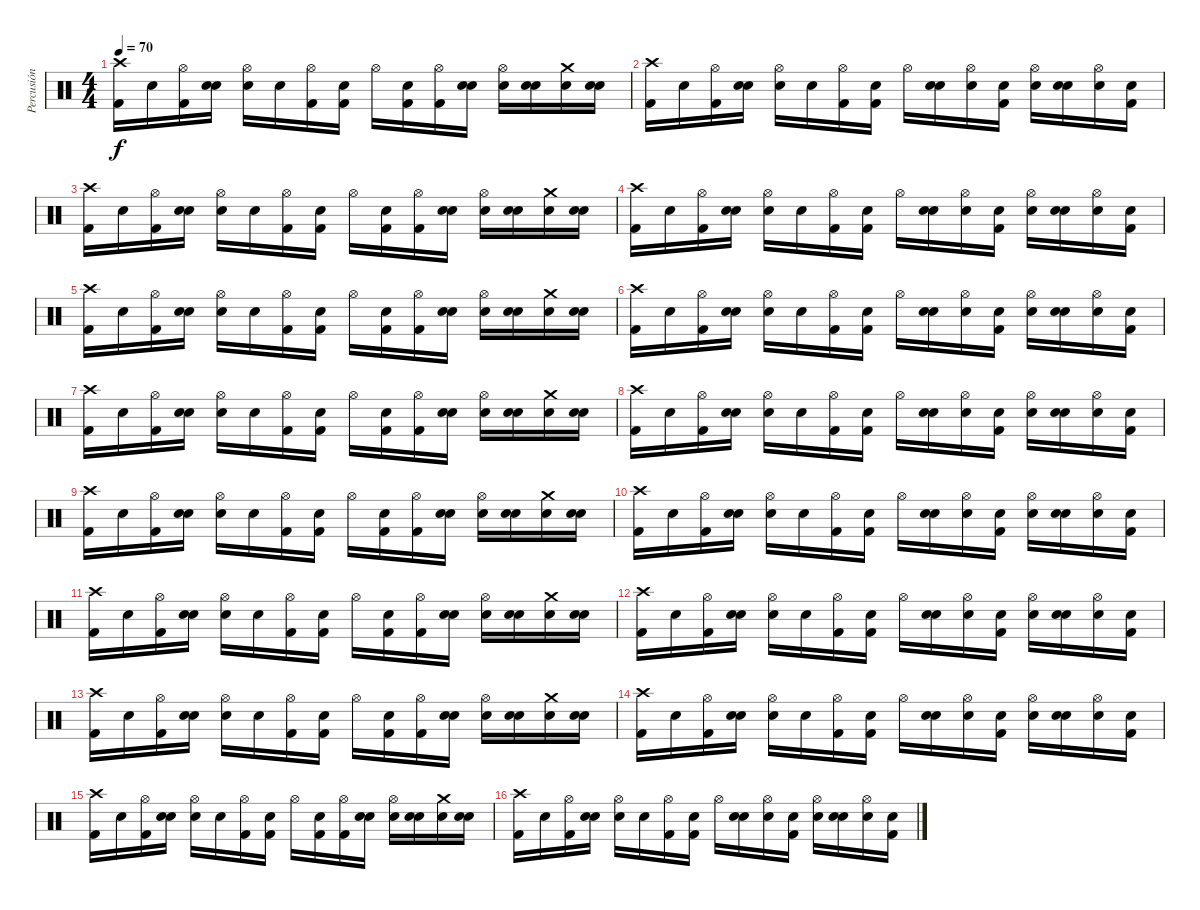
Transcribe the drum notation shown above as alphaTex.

\track ("Percusión" "Percusión") {instrument percussion}
\staff {score}
\articulation defaults
\ts (4 4)
\tempo 70
\clef neutral
\ks c
("Crash high (hit)" "Kick (hit) 2").16{dy f} "Snare (hit)".16 ("Hi-Hat (open)" "Kick (hit) 2").16 ("Snare (hit)" "Snare (hit)").16 ("Hi-Hat (open)" "Electric Snare (hit)").16 "Snare (hit)".16 ("Hi-Hat (open)" "Kick (hit) 2").16 ("Snare (hit)" "Kick (hit) 2").16 "Hi-Hat (open)".16 ("Snare (hit)" "Kick (hit) 2").16 ("Hi-Hat (open)" "Kick (hit) 2").16 ("Snare (hit)" "Snare (hit)").16 ("Hi-Hat (open)" "Electric Snare (hit)").16 ("Snare (hit)" "Electric Snare (hit)").16 ("Crash medium (hit)" "Electric Snare (hit)").16 ("Snare (hit)" "Electric Snare (hit)").16 |
("Crash high (hit)" "Kick (hit) 2").16 "Snare (hit)".16 ("Hi-Hat (open)" "Kick (hit) 2").16 ("Snare (hit)" "Snare (hit)").16 ("Hi-Hat (open)" "Electric Snare (hit)").16 "Snare (hit)".16 ("Hi-Hat (open)" "Kick (hit) 2").16 ("Snare (hit)" "Kick (hit) 2").16 "Hi-Hat (open)".16 ("Snare (hit)" "Electric Snare (hit)").16 ("Hi-Hat (open)" "Snare (hit)").16 ("Snare (hit)" "Kick (hit) 2").16 ("Hi-Hat (open)" "Electric Snare (hit)").16 ("Snare (hit)" "Electric Snare (hit)").16 ("Hi-Hat (open)" "Snare (hit)").16 ("Snare (hit)" "Kick (hit) 2").16 |
("Crash high (hit)" "Kick (hit) 2").16 "Snare (hit)".16 ("Hi-Hat (open)" "Kick (hit) 2").16 ("Snare (hit)" "Snare (hit)").16 ("Hi-Hat (open)" "Electric Snare (hit)").16 "Snare (hit)".16 ("Hi-Hat (open)" "Kick (hit) 2").16 ("Snare (hit)" "Kick (hit) 2").16 "Hi-Hat (open)".16 ("Snare (hit)" "Kick (hit) 2").16 ("Hi-Hat (open)" "Kick (hit) 2").16 ("Snare (hit)" "Snare (hit)").16 ("Hi-Hat (open)" "Electric Snare (hit)").16 ("Snare (hit)" "Electric Snare (hit)").16 ("Crash medium (hit)" "Electric Snare (hit)").16 ("Snare (hit)" "Electric Snare (hit)").16 |
("Crash high (hit)" "Kick (hit) 2").16 "Snare (hit)".16 ("Hi-Hat (open)" "Kick (hit) 2").16 ("Snare (hit)" "Snare (hit)").16 ("Hi-Hat (open)" "Electric Snare (hit)").16 "Snare (hit)".16 ("Hi-Hat (open)" "Kick (hit) 2").16 ("Snare (hit)" "Kick (hit) 2").16 "Hi-Hat (open)".16 ("Snare (hit)" "Electric Snare (hit)").16 ("Hi-Hat (open)" "Snare (hit)").16 ("Snare (hit)" "Kick (hit) 2").16 ("Hi-Hat (open)" "Electric Snare (hit)").16 ("Snare (hit)" "Electric Snare (hit)").16 ("Hi-Hat (open)" "Snare (hit)").16 ("Snare (hit)" "Kick (hit) 2").16 |
("Crash high (hit)" "Kick (hit) 2").16 "Snare (hit)".16 ("Hi-Hat (open)" "Kick (hit) 2").16 ("Snare (hit)" "Snare (hit)").16 ("Hi-Hat (open)" "Electric Snare (hit)").16 "Snare (hit)".16 ("Hi-Hat (open)" "Kick (hit) 2").16 ("Snare (hit)" "Kick (hit) 2").16 "Hi-Hat (open)".16 ("Snare (hit)" "Kick (hit) 2").16 ("Hi-Hat (open)" "Kick (hit) 2").16 ("Snare (hit)" "Snare (hit)").16 ("Hi-Hat (open)" "Electric Snare (hit)").16 ("Snare (hit)" "Electric Snare (hit)").16 ("Crash medium (hit)" "Electric Snare (hit)").16 ("Snare (hit)" "Electric Snare (hit)").16 |
("Crash high (hit)" "Kick (hit) 2").16 "Snare (hit)".16 ("Hi-Hat (open)" "Kick (hit) 2").16 ("Snare (hit)" "Snare (hit)").16 ("Hi-Hat (open)" "Electric Snare (hit)").16 "Snare (hit)".16 ("Hi-Hat (open)" "Kick (hit) 2").16 ("Snare (hit)" "Kick (hit) 2").16 "Hi-Hat (open)".16 ("Snare (hit)" "Electric Snare (hit)").16 ("Hi-Hat (open)" "Snare (hit)").16 ("Snare (hit)" "Kick (hit) 2").16 ("Hi-Hat (open)" "Electric Snare (hit)").16 ("Snare (hit)" "Electric Snare (hit)").16 ("Hi-Hat (open)" "Snare (hit)").16 ("Snare (hit)" "Kick (hit) 2").16 |
("Crash high (hit)" "Kick (hit) 2").16 "Snare (hit)".16 ("Hi-Hat (open)" "Kick (hit) 2").16 ("Snare (hit)" "Snare (hit)").16 ("Hi-Hat (open)" "Electric Snare (hit)").16 "Snare (hit)".16 ("Hi-Hat (open)" "Kick (hit) 2").16 ("Snare (hit)" "Kick (hit) 2").16 "Hi-Hat (open)".16 ("Snare (hit)" "Kick (hit) 2").16 ("Hi-Hat (open)" "Kick (hit) 2").16 ("Snare (hit)" "Snare (hit)").16 ("Hi-Hat (open)" "Electric Snare (hit)").16 ("Snare (hit)" "Electric Snare (hit)").16 ("Crash medium (hit)" "Electric Snare (hit)").16 ("Snare (hit)" "Electric Snare (hit)").16 |
("Crash high (hit)" "Kick (hit) 2").16 "Snare (hit)".16 ("Hi-Hat (open)" "Kick (hit) 2").16 ("Snare (hit)" "Snare (hit)").16 ("Hi-Hat (open)" "Electric Snare (hit)").16 "Snare (hit)".16 ("Hi-Hat (open)" "Kick (hit) 2").16 ("Snare (hit)" "Kick (hit) 2").16 "Hi-Hat (open)".16 ("Snare (hit)" "Electric Snare (hit)").16 ("Hi-Hat (open)" "Snare (hit)").16 ("Snare (hit)" "Kick (hit) 2").16 ("Hi-Hat (open)" "Electric Snare (hit)").16 ("Snare (hit)" "Electric Snare (hit)").16 ("Hi-Hat (open)" "Snare (hit)").16 ("Snare (hit)" "Kick (hit) 2").16 |
("Crash high (hit)" "Kick (hit) 2").16 "Snare (hit)".16 ("Hi-Hat (open)" "Kick (hit) 2").16 ("Snare (hit)" "Snare (hit)").16 ("Hi-Hat (open)" "Electric Snare (hit)").16 "Snare (hit)".16 ("Hi-Hat (open)" "Kick (hit) 2").16 ("Snare (hit)" "Kick (hit) 2").16 "Hi-Hat (open)".16 ("Snare (hit)" "Kick (hit) 2").16 ("Hi-Hat (open)" "Kick (hit) 2").16 ("Snare (hit)" "Snare (hit)").16 ("Hi-Hat (open)" "Electric Snare (hit)").16 ("Snare (hit)" "Electric Snare (hit)").16 ("Crash medium (hit)" "Electric Snare (hit)").16 ("Snare (hit)" "Electric Snare (hit)").16 |
("Crash high (hit)" "Kick (hit) 2").16 "Snare (hit)".16 ("Hi-Hat (open)" "Kick (hit) 2").16 ("Snare (hit)" "Snare (hit)").16 ("Hi-Hat (open)" "Electric Snare (hit)").16 "Snare (hit)".16 ("Hi-Hat (open)" "Kick (hit) 2").16 ("Snare (hit)" "Kick (hit) 2").16 "Hi-Hat (open)".16 ("Snare (hit)" "Electric Snare (hit)").16 ("Hi-Hat (open)" "Snare (hit)").16 ("Snare (hit)" "Kick (hit) 2").16 ("Hi-Hat (open)" "Electric Snare (hit)").16 ("Snare (hit)" "Electric Snare (hit)").16 ("Hi-Hat (open)" "Snare (hit)").16 ("Snare (hit)" "Kick (hit) 2").16 |
("Crash high (hit)" "Kick (hit) 2").16 "Snare (hit)".16 ("Hi-Hat (open)" "Kick (hit) 2").16 ("Snare (hit)" "Snare (hit)").16 ("Hi-Hat (open)" "Electric Snare (hit)").16 "Snare (hit)".16 ("Hi-Hat (open)" "Kick (hit) 2").16 ("Snare (hit)" "Kick (hit) 2").16 "Hi-Hat (open)".16 ("Snare (hit)" "Kick (hit) 2").16 ("Hi-Hat (open)" "Kick (hit) 2").16 ("Snare (hit)" "Snare (hit)").16 ("Hi-Hat (open)" "Electric Snare (hit)").16 ("Snare (hit)" "Electric Snare (hit)").16 ("Crash medium (hit)" "Electric Snare (hit)").16 ("Snare (hit)" "Electric Snare (hit)").16 |
("Crash high (hit)" "Kick (hit) 2").16 "Snare (hit)".16 ("Hi-Hat (open)" "Kick (hit) 2").16 ("Snare (hit)" "Snare (hit)").16 ("Hi-Hat (open)" "Electric Snare (hit)").16 "Snare (hit)".16 ("Hi-Hat (open)" "Kick (hit) 2").16 ("Snare (hit)" "Kick (hit) 2").16 "Hi-Hat (open)".16 ("Snare (hit)" "Electric Snare (hit)").16 ("Hi-Hat (open)" "Snare (hit)").16 ("Snare (hit)" "Kick (hit) 2").16 ("Hi-Hat (open)" "Electric Snare (hit)").16 ("Snare (hit)" "Electric Snare (hit)").16 ("Hi-Hat (open)" "Snare (hit)").16 ("Snare (hit)" "Kick (hit) 2").16 |
("Crash high (hit)" "Kick (hit) 2").16 "Snare (hit)".16 ("Hi-Hat (open)" "Kick (hit) 2").16 ("Snare (hit)" "Snare (hit)").16 ("Hi-Hat (open)" "Electric Snare (hit)").16 "Snare (hit)".16 ("Hi-Hat (open)" "Kick (hit) 2").16 ("Snare (hit)" "Kick (hit) 2").16 "Hi-Hat (open)".16 ("Snare (hit)" "Kick (hit) 2").16 ("Hi-Hat (open)" "Kick (hit) 2").16 ("Snare (hit)" "Snare (hit)").16 ("Hi-Hat (open)" "Electric Snare (hit)").16 ("Snare (hit)" "Electric Snare (hit)").16 ("Crash medium (hit)" "Electric Snare (hit)").16 ("Snare (hit)" "Electric Snare (hit)").16 |
("Crash high (hit)" "Kick (hit) 2").16 "Snare (hit)".16 ("Hi-Hat (open)" "Kick (hit) 2").16 ("Snare (hit)" "Snare (hit)").16 ("Hi-Hat (open)" "Electric Snare (hit)").16 "Snare (hit)".16 ("Hi-Hat (open)" "Kick (hit) 2").16 ("Snare (hit)" "Kick (hit) 2").16 "Hi-Hat (open)".16 ("Snare (hit)" "Electric Snare (hit)").16 ("Hi-Hat (open)" "Snare (hit)").16 ("Snare (hit)" "Kick (hit) 2").16 ("Hi-Hat (open)" "Electric Snare (hit)").16 ("Snare (hit)" "Electric Snare (hit)").16 ("Hi-Hat (open)" "Snare (hit)").16 ("Snare (hit)" "Kick (hit) 2").16 |
("Crash high (hit)" "Kick (hit) 2").16 "Snare (hit)".16 ("Hi-Hat (open)" "Kick (hit) 2").16 ("Snare (hit)" "Snare (hit)").16 ("Hi-Hat (open)" "Electric Snare (hit)").16 "Snare (hit)".16 ("Hi-Hat (open)" "Kick (hit) 2").16 ("Snare (hit)" "Kick (hit) 2").16 "Hi-Hat (open)".16 ("Snare (hit)" "Kick (hit) 2").16 ("Hi-Hat (open)" "Kick (hit) 2").16 ("Snare (hit)" "Snare (hit)").16 ("Hi-Hat (open)" "Electric Snare (hit)").16 ("Snare (hit)" "Electric Snare (hit)").16 ("Crash medium (hit)" "Electric Snare (hit)").16 ("Snare (hit)" "Electric Snare (hit)").16 |
("Crash high (hit)" "Kick (hit) 2").16 "Snare (hit)".16 ("Hi-Hat (open)" "Kick (hit) 2").16 ("Snare (hit)" "Snare (hit)").16 ("Hi-Hat (open)" "Electric Snare (hit)").16 "Snare (hit)".16 ("Hi-Hat (open)" "Kick (hit) 2").16 ("Snare (hit)" "Kick (hit) 2").16 "Hi-Hat (open)".16 ("Snare (hit)" "Electric Snare (hit)").16 ("Hi-Hat (open)" "Snare (hit)").16 ("Snare (hit)" "Kick (hit) 2").16 ("Hi-Hat (open)" "Electric Snare (hit)").16 ("Snare (hit)" "Electric Snare (hit)").16 ("Hi-Hat (open)" "Snare (hit)").16 ("Snare (hit)" "Kick (hit) 2").16
